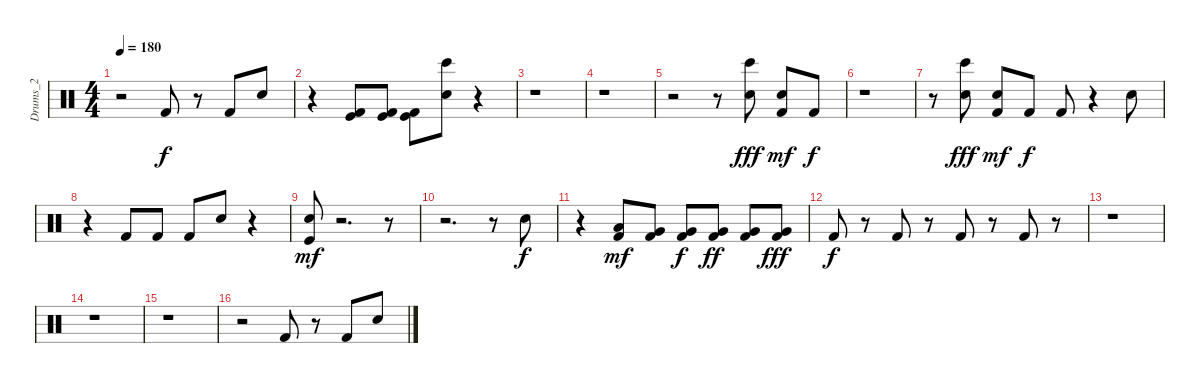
\track ("Drums_2" "Drums_2") {instrument percussion}
\staff {score}
\articulation defaults
\ts (4 4)
\tempo 180
\clef neutral
\ks c
r.2{dy f} "Kick (hit) 2".8 r.8 "Kick (hit) 2".8 "Snare (hit) 2".8 |
r.4 ("Kick (hit)" "Kick (hit) 2").8 ("Kick (hit)" "Kick (hit) 2").8 ("Kick (hit)" "Kick (hit) 2").8 ("Bongo High (hit)" "Snare (hit) 2").8 r.4 |
r.1 |
r.1 |
r.2 r.8 ("Bongo High (hit)" "Snare (hit) 2").8{dy fff} ("Kick (hit) 2" "Snare (hit) 2").8{dy mf} "Kick (hit) 2".8{dy f} |
r.1 |
r.8 ("Bongo High (hit)" "Snare (hit) 2").8{dy fff} ("Kick (hit) 2" "Snare (hit) 2").8{dy mf} "Kick (hit) 2".8{dy f} "Kick (hit) 2".8 r.4 "Snare (hit) 2".8 |
r.4 "Kick (hit) 2".8 "Kick (hit) 2".8 "Kick (hit) 2".8 "Snare (hit) 2".8 r.4 |
("Kick (hit)" "Snare (hit) 2").8{dy mf} r.2{d} r.8 |
r.2{d} r.8 "Snare (hit) 2".8{dy f} |
r.4 ("Kick (hit) 2" "Low Floor Tom (hit)").8{dy mf} ("Kick (hit) 2" "Very Low Tom (hit)").8 ("Kick (hit) 2" "Very Low Tom (hit)").8{dy f} ("Kick (hit) 2" "Very Low Tom (hit)").8{dy ff} ("Kick (hit) 2" "Very Low Tom (hit)").8 ("Kick (hit) 2" "Very Low Tom (hit)").8{dy fff} |
"Kick (hit) 2".8{dy f} r.8 "Kick (hit) 2".8 r.8 "Kick (hit) 2".8 r.8 "Kick (hit) 2".8 r.8 |
r.1 |
r.1 |
r.1 |
r.2 "Kick (hit) 2".8 r.8 "Kick (hit) 2".8 "Snare (hit) 2".8
